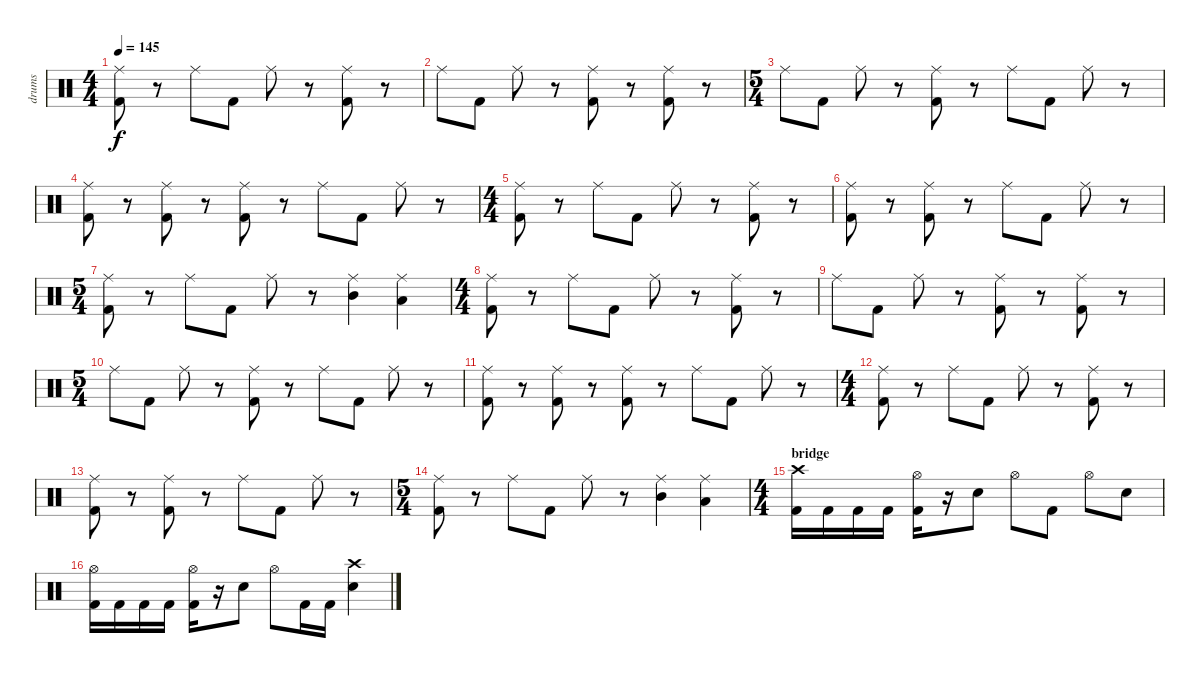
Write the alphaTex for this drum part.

\track ("drums" "drums") {instrument percussion}
\staff {score}
\articulation defaults
\ts (4 4)
\tempo 145
\clef neutral
\ks c
("Kick (hit) 2" "Ride (middle)").8{dy f} r.8 "Ride (middle)".8 "Kick (hit) 2".8 "Ride (middle)".8 r.8 ("Kick (hit) 2" "Ride (middle)").8 r.8 |
"Ride (middle)".8 "Kick (hit) 2".8 "Ride (middle)".8 r.8 ("Kick (hit) 2" "Ride (middle)").8 r.8 ("Kick (hit) 2" "Ride (middle)").8 r.8 |
\ts (5 4)
"Ride (middle)".8 "Kick (hit) 2".8 "Ride (middle)".8 r.8 ("Kick (hit) 2" "Ride (middle)").8 r.8 "Ride (middle)".8 "Kick (hit) 2".8 "Ride (middle)".8 r.8 |
("Kick (hit) 2" "Ride (middle)").8 r.8 ("Kick (hit) 2" "Ride (middle)").8 r.8 ("Kick (hit) 2" "Ride (middle)").8 r.8 "Ride (middle)".8 "Kick (hit) 2".8 "Ride (middle)".8 r.8 |
\ts (4 4)
("Kick (hit) 2" "Ride (middle)").8 r.8 "Ride (middle)".8 "Kick (hit) 2".8 "Ride (middle)".8 r.8 ("Kick (hit) 2" "Ride (middle)").8 r.8 |
("Kick (hit) 2" "Ride (middle)").8 r.8 ("Kick (hit) 2" "Ride (middle)").8 r.8 "Ride (middle)".8 "Kick (hit) 2".8 "Ride (middle)".8 r.8 |
\ts (5 4)
("Kick (hit) 2" "Ride (middle)").8 r.8 "Ride (middle)".8 "Kick (hit) 2".8 "Ride (middle)".8 r.8 ("Mid Tom (hit)" "Ride (middle)").4 ("Low Tom (hit)" "Ride (middle)").4 |
\ts (4 4)
("Kick (hit) 2" "Ride (middle)").8 r.8 "Ride (middle)".8 "Kick (hit) 2".8 "Ride (middle)".8 r.8 ("Kick (hit) 2" "Ride (middle)").8 r.8 |
"Ride (middle)".8 "Kick (hit) 2".8 "Ride (middle)".8 r.8 ("Kick (hit) 2" "Ride (middle)").8 r.8 ("Kick (hit) 2" "Ride (middle)").8 r.8 |
\ts (5 4)
"Ride (middle)".8 "Kick (hit) 2".8 "Ride (middle)".8 r.8 ("Kick (hit) 2" "Ride (middle)").8 r.8 "Ride (middle)".8 "Kick (hit) 2".8 "Ride (middle)".8 r.8 |
("Kick (hit) 2" "Ride (middle)").8 r.8 ("Kick (hit) 2" "Ride (middle)").8 r.8 ("Kick (hit) 2" "Ride (middle)").8 r.8 "Ride (middle)".8 "Kick (hit) 2".8 "Ride (middle)".8 r.8 |
\ts (4 4)
("Kick (hit) 2" "Ride (middle)").8 r.8 "Ride (middle)".8 "Kick (hit) 2".8 "Ride (middle)".8 r.8 ("Kick (hit) 2" "Ride (middle)").8 r.8 |
("Kick (hit) 2" "Ride (middle)").8 r.8 ("Kick (hit) 2" "Ride (middle)").8 r.8 "Ride (middle)".8 "Kick (hit) 2".8 "Ride (middle)".8 r.8 |
\ts (5 4)
("Kick (hit) 2" "Ride (middle)").8 r.8 "Ride (middle)".8 "Kick (hit) 2".8 "Ride (middle)".8 r.8 ("Mid Tom (hit)" "Ride (middle)").4 ("Low Tom (hit)" "Ride (middle)").4 |
\ts (4 4)
\section ("" "bridge")
("Kick (hit) 2" "Crash high (hit)").16 "Kick (hit) 2".16 "Kick (hit) 2".16 "Kick (hit) 2".16 ("Kick (hit) 2" "Hi-Hat (open)").16 r.16 "Snare (hit) 2".8 "Hi-Hat (open)".8 "Kick (hit) 2".8 "Hi-Hat (open)".8 "Snare (hit) 2".8 |
("Kick (hit) 2" "Hi-Hat (open)").16 "Kick (hit) 2".16 "Kick (hit) 2".16 "Kick (hit) 2".16 ("Kick (hit) 2" "Hi-Hat (open)").16 r.16 "Snare (hit) 2".8 "Hi-Hat (open)".8 "Kick (hit) 2".16 "Kick (hit) 2".16 ("Snare (hit) 2" "Crash high (hit)").4
